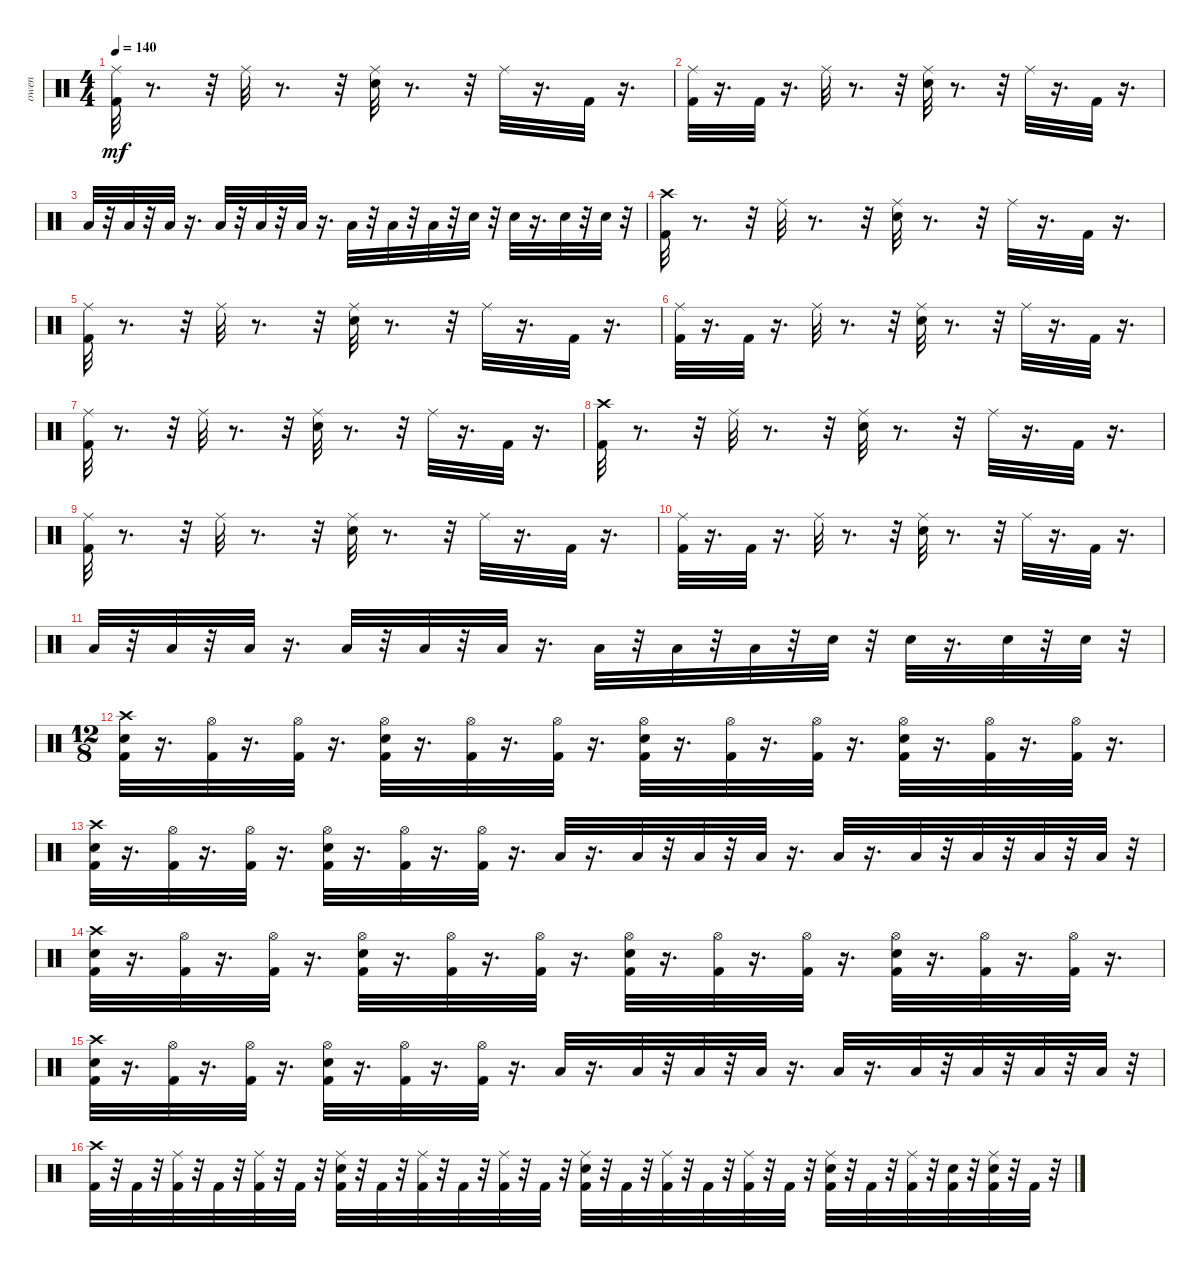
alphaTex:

\track ("owen" "owen") {instrument percussion}
\staff {score}
\articulation defaults
\ts (4 4)
\tempo 140
\clef neutral
\ks c
("Kick (hit) 2" "Ride (middle)").32{dy mf} r.8{d} r.32 "Ride (middle)".32 r.8{d} r.32 ("Ride (middle)" "Snare (hit) 2").32 r.8{d} r.32 "Ride (middle)".32 r.16{d} "Kick (hit) 2".32 r.16{d} |
("Kick (hit) 2" "Ride (middle)").32 r.16{d} "Kick (hit) 2".32 r.16{d} "Ride (middle)".32 r.8{d} r.32 ("Ride (middle)" "Snare (hit) 2").32 r.8{d} r.32 "Ride (middle)".32 r.16{d} "Kick (hit) 2".32 r.16{d} |
"Low Tom (hit)".32 r.32 "Low Tom (hit)".32 r.32 "Low Tom (hit)".32 r.16{d} "Low Floor Tom (hit)".32 r.32 "Low Floor Tom (hit)".32 r.32 "Low Floor Tom (hit)".32 r.16{d} "Low Floor Tom (hit)".32 r.32 "Low Floor Tom (hit)".32 r.32 "Low Floor Tom (hit)".32 r.32 "Snare (hit) 2".32 r.32 "Snare (hit) 2".32 r.16{d} "Snare (hit) 2".32 r.32 "Snare (hit) 2".32 r.32 |
("Kick (hit) 2" "Crash high (hit)").32 r.8{d} r.32 "Ride (middle)".32 r.8{d} r.32 ("Ride (middle)" "Snare (hit) 2").32 r.8{d} r.32 "Ride (middle)".32 r.16{d} "Kick (hit) 2".32 r.16{d} |
("Kick (hit) 2" "Ride (middle)").32 r.8{d} r.32 "Ride (middle)".32 r.8{d} r.32 ("Ride (middle)" "Snare (hit) 2").32 r.8{d} r.32 "Ride (middle)".32 r.16{d} "Kick (hit) 2".32 r.16{d} |
("Kick (hit) 2" "Ride (middle)").32 r.16{d} "Kick (hit) 2".32 r.16{d} "Ride (middle)".32 r.8{d} r.32 ("Ride (middle)" "Snare (hit) 2").32 r.8{d} r.32 "Ride (middle)".32 r.16{d} "Kick (hit) 2".32 r.16{d} |
("Kick (hit) 2" "Ride (middle)").32 r.8{d} r.32 "Ride (middle)".32 r.8{d} r.32 ("Ride (middle)" "Snare (hit) 2").32 r.8{d} r.32 "Ride (middle)".32 r.16{d} "Kick (hit) 2".32 r.16{d} |
("Kick (hit) 2" "Crash high (hit)").32 r.8{d} r.32 "Ride (middle)".32 r.8{d} r.32 ("Ride (middle)" "Snare (hit) 2").32 r.8{d} r.32 "Ride (middle)".32 r.16{d} "Kick (hit) 2".32 r.16{d} |
("Kick (hit) 2" "Ride (middle)").32 r.8{d} r.32 "Ride (middle)".32 r.8{d} r.32 ("Ride (middle)" "Snare (hit) 2").32 r.8{d} r.32 "Ride (middle)".32 r.16{d} "Kick (hit) 2".32 r.16{d} |
("Kick (hit) 2" "Ride (middle)").32 r.16{d} "Kick (hit) 2".32 r.16{d} "Ride (middle)".32 r.8{d} r.32 ("Ride (middle)" "Snare (hit) 2").32 r.8{d} r.32 "Ride (middle)".32 r.16{d} "Kick (hit) 2".32 r.16{d} |
"Low Tom (hit)".32 r.32 "Low Tom (hit)".32 r.32 "Low Tom (hit)".32 r.16{d} "Low Floor Tom (hit)".32 r.32 "Low Floor Tom (hit)".32 r.32 "Low Floor Tom (hit)".32 r.16{d} "Low Floor Tom (hit)".32 r.32 "Low Floor Tom (hit)".32 r.32 "Low Floor Tom (hit)".32 r.32 "Snare (hit) 2".32 r.32 "Snare (hit) 2".32 r.16{d} "Snare (hit) 2".32 r.32 "Snare (hit) 2".32 r.32 |
\ts (12 8)
("Kick (hit) 2" "Snare (hit) 2" "Crash high (hit)").32 r.16{d} ("Kick (hit) 2" "Hi-Hat (open)").32 r.16{d} ("Kick (hit) 2" "Hi-Hat (open)").32 r.16{d} ("Kick (hit) 2" "Snare (hit) 2" "Hi-Hat (open)").32 r.16{d} ("Kick (hit) 2" "Hi-Hat (open)").32 r.16{d} ("Kick (hit) 2" "Hi-Hat (open)").32 r.16{d} ("Kick (hit) 2" "Snare (hit) 2" "Hi-Hat (open)").32 r.16{d} ("Kick (hit) 2" "Hi-Hat (open)").32 r.16{d} ("Kick (hit) 2" "Hi-Hat (open)").32 r.16{d} ("Kick (hit) 2" "Snare (hit) 2" "Hi-Hat (open)").32 r.16{d} ("Kick (hit) 2" "Hi-Hat (open)").32 r.16{d} ("Kick (hit) 2" "Hi-Hat (open)").32 r.16{d} |
("Kick (hit) 2" "Snare (hit) 2" "Crash high (hit)").32 r.16{d} ("Kick (hit) 2" "Hi-Hat (open)").32 r.16{d} ("Kick (hit) 2" "Hi-Hat (open)").32 r.16{d} ("Kick (hit) 2" "Snare (hit) 2" "Hi-Hat (open)").32 r.16{d} ("Kick (hit) 2" "Hi-Hat (open)").32 r.16{d} ("Kick (hit) 2" "Hi-Hat (open)").32 r.16{d} "Low Tom (hit)".32 r.16{d} "Low Tom (hit)".32 r.32 "Low Tom (hit)".32 r.32 "Low Tom (hit)".32 r.16{d} "Low Floor Tom (hit)".32 r.16{d} "Low Floor Tom (hit)".32 r.32 "Low Floor Tom (hit)".32 r.32 "Low Floor Tom (hit)".32 r.32 "Low Floor Tom (hit)".32 r.32 |
("Kick (hit) 2" "Snare (hit) 2" "Crash high (hit)").32 r.16{d} ("Kick (hit) 2" "Hi-Hat (open)").32 r.16{d} ("Kick (hit) 2" "Hi-Hat (open)").32 r.16{d} ("Kick (hit) 2" "Snare (hit) 2" "Hi-Hat (open)").32 r.16{d} ("Kick (hit) 2" "Hi-Hat (open)").32 r.16{d} ("Kick (hit) 2" "Hi-Hat (open)").32 r.16{d} ("Kick (hit) 2" "Snare (hit) 2" "Hi-Hat (open)").32 r.16{d} ("Kick (hit) 2" "Hi-Hat (open)").32 r.16{d} ("Kick (hit) 2" "Hi-Hat (open)").32 r.16{d} ("Kick (hit) 2" "Snare (hit) 2" "Hi-Hat (open)").32 r.16{d} ("Kick (hit) 2" "Hi-Hat (open)").32 r.16{d} ("Kick (hit) 2" "Hi-Hat (open)").32 r.16{d} |
("Kick (hit) 2" "Snare (hit) 2" "Crash high (hit)").32 r.16{d} ("Kick (hit) 2" "Hi-Hat (open)").32 r.16{d} ("Kick (hit) 2" "Hi-Hat (open)").32 r.16{d} ("Kick (hit) 2" "Snare (hit) 2" "Hi-Hat (open)").32 r.16{d} ("Kick (hit) 2" "Hi-Hat (open)").32 r.16{d} ("Kick (hit) 2" "Hi-Hat (open)").32 r.16{d} "Low Tom (hit)".32 r.16{d} "Low Tom (hit)".32 r.32 "Low Tom (hit)".32 r.32 "Low Tom (hit)".32 r.16{d} "Low Floor Tom (hit)".32 r.16{d} "Low Floor Tom (hit)".32 r.32 "Low Floor Tom (hit)".32 r.32 "Low Floor Tom (hit)".32 r.32 "Low Floor Tom (hit)".32 r.32 |
("Kick (hit) 2" "Crash high (hit)").32 r.32 "Kick (hit) 2".32 r.32 ("Kick (hit) 2" "Ride (middle)").32 r.32 "Kick (hit) 2".32 r.32 ("Kick (hit) 2" "Ride (middle)").32 r.32 "Kick (hit) 2".32 r.32 ("Kick (hit) 2" "Ride (middle)" "Snare (hit) 2").32 r.32 "Kick (hit) 2".32 r.32 ("Kick (hit) 2" "Ride (middle)").32 r.32 "Kick (hit) 2".32 r.32 ("Kick (hit) 2" "Ride (middle)").32 r.32 "Kick (hit) 2".32 r.32 ("Kick (hit) 2" "Ride (middle)" "Snare (hit) 2").32 r.32 "Kick (hit) 2".32 r.32 ("Kick (hit) 2" "Ride (middle)").32 r.32 "Kick (hit) 2".32 r.32 ("Kick (hit) 2" "Ride (middle)").32 r.32 "Kick (hit) 2".32 r.32 ("Kick (hit) 2" "Ride (middle)" "Snare (hit) 2").32 r.32 "Kick (hit) 2".32 r.32 ("Kick (hit) 2" "Ride (middle)").32 r.32 ("Kick (hit) 2" "Snare (hit) 2").32 r.32 ("Kick (hit) 2" "Ride (middle)" "Snare (hit) 2").32 r.32 "Kick (hit) 2".32 r.32
